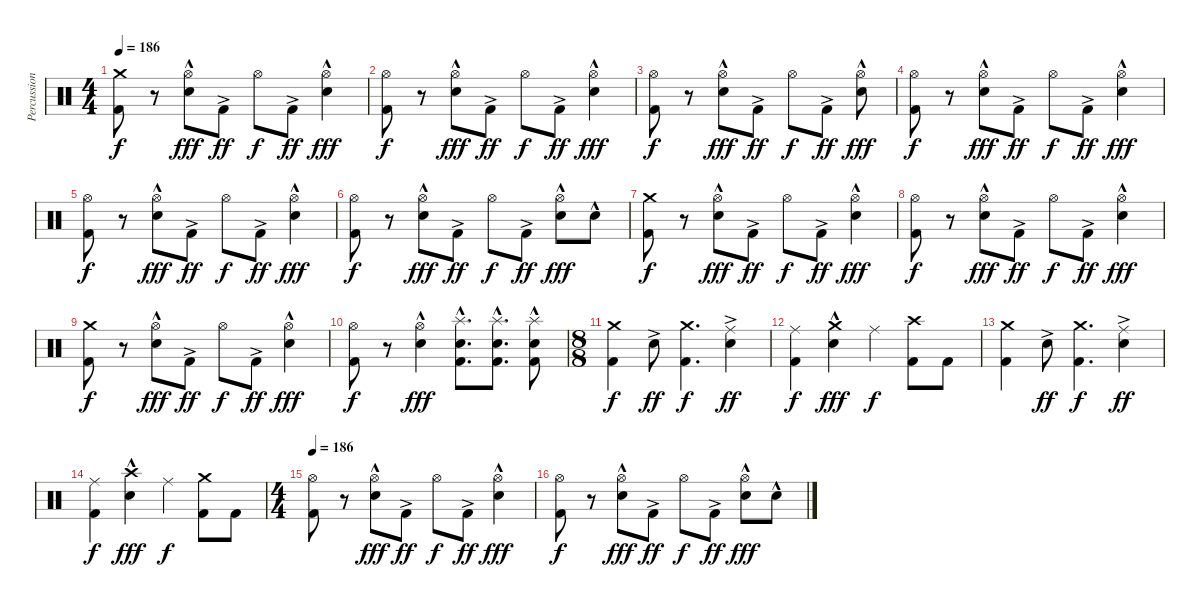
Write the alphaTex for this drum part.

\track ("Percussion" "Percussion") {instrument percussion}
\staff {score}
\articulation defaults
\ts (4 4)
\tempo 186
\clef neutral
\ks c
("Kick (hit) 2" "Crash medium (hit)").8{dy f} r.8 ("Electric Snare (hit)"{hac} "Hi-Hat (open)").8{dy fff} "Kick (hit) 2"{ac}.8{dy ff} "Hi-Hat (open)".8{dy f} "Kick (hit) 2"{ac}.8{dy ff} ("Electric Snare (hit)"{hac} "Hi-Hat (open)").4{dy fff} |
("Kick (hit) 2" "Hi-Hat (open)").8{dy f} r.8 ("Electric Snare (hit)"{hac} "Hi-Hat (open)").8{dy fff} "Kick (hit) 2"{ac}.8{dy ff} "Hi-Hat (open)".8{dy f} "Kick (hit) 2"{ac}.8{dy ff} ("Electric Snare (hit)"{hac} "Hi-Hat (open)").4{dy fff} |
("Kick (hit) 2" "Hi-Hat (open)").8{dy f} r.8 ("Electric Snare (hit)"{hac} "Hi-Hat (open)").8{dy fff} "Kick (hit) 2"{ac}.8{dy ff} "Hi-Hat (open)".8{dy f} "Kick (hit) 2"{ac}.8{dy ff} ("Electric Snare (hit)"{hac} "Hi-Hat (open)").8{dy fff} |
("Kick (hit) 2" "Hi-Hat (open)").8{dy f} r.8 ("Electric Snare (hit)"{hac} "Hi-Hat (open)").8{dy fff} "Kick (hit) 2"{ac}.8{dy ff} "Hi-Hat (open)".8{dy f} "Kick (hit) 2"{ac}.8{dy ff} ("Electric Snare (hit)"{hac} "Hi-Hat (open)").4{dy fff} |
("Kick (hit) 2" "Hi-Hat (open)").8{dy f} r.8 ("Electric Snare (hit)"{hac} "Hi-Hat (open)").8{dy fff} "Kick (hit) 2"{ac}.8{dy ff} "Hi-Hat (open)".8{dy f} "Kick (hit) 2"{ac}.8{dy ff} ("Electric Snare (hit)"{hac} "Hi-Hat (open)").4{dy fff} |
("Kick (hit) 2" "Hi-Hat (open)").8{dy f} r.8 ("Electric Snare (hit)"{hac} "Hi-Hat (open)").8{dy fff} "Kick (hit) 2"{ac}.8{dy ff} "Hi-Hat (open)".8{dy f} "Kick (hit) 2"{ac}.8{dy ff} ("Electric Snare (hit)"{hac} "Hi-Hat (open)").8{dy fff} "Electric Snare (hit)"{hac}.8 |
("Kick (hit) 2" "Crash medium (hit)").8{dy f} r.8 ("Electric Snare (hit)"{hac} "Hi-Hat (open)").8{dy fff} "Kick (hit) 2"{ac}.8{dy ff} "Hi-Hat (open)".8{dy f} "Kick (hit) 2"{ac}.8{dy ff} ("Electric Snare (hit)"{hac} "Hi-Hat (open)").4{dy fff} |
("Kick (hit) 2" "Hi-Hat (open)").8{dy f} r.8 ("Electric Snare (hit)"{hac} "Hi-Hat (open)").8{dy fff} "Kick (hit) 2"{ac}.8{dy ff} "Hi-Hat (open)".8{dy f} "Kick (hit) 2"{ac}.8{dy ff} ("Electric Snare (hit)"{hac} "Hi-Hat (open)").4{dy fff} |
("Kick (hit) 2" "Crash medium (hit)").8{dy f} r.8 ("Electric Snare (hit)"{hac} "Hi-Hat (open)").8{dy fff} "Kick (hit) 2"{ac}.8{dy ff} "Hi-Hat (open)".8{dy f} "Kick (hit) 2"{ac}.8{dy ff} ("Electric Snare (hit)"{hac} "Hi-Hat (open)").4{dy fff} |
("Kick (hit) 2" "Hi-Hat (open)").8{dy f} r.8 ("Electric Snare (hit)"{hac} "Hi-Hat (open)").4{dy fff} ("Kick (hit) 2" "Electric Snare (hit)"{hac} "Splash (hit)").8{d} ("Kick (hit) 2" "Electric Snare (hit)"{hac} "Splash (hit)").8{d} ("Kick (hit) 2" "Electric Snare (hit)"{hac} "Splash (hit)").8 |
\ts (8 8)
("Kick (hit) 2" "Crash medium (hit)").4{dy f} "Electric Snare (hit)"{ac}.8{dy ff} ("Kick (hit) 2" "Crash medium (hit)").4{d dy f} ("Electric Snare (hit)"{ac} "Ride (middle)").4{dy ff} |
("Kick (hit) 2" "Ride (middle)").4{dy f} ("Electric Snare (hit)"{hac} "Crash medium (hit)").4{dy fff} "Ride (middle)".4{dy f} ("Kick (hit) 2" "Crash high (hit)").8 "Kick (hit) 2".8 |
("Kick (hit) 2" "Crash medium (hit)").4 "Electric Snare (hit)"{ac}.8{dy ff} ("Kick (hit) 2" "Crash medium (hit)").4{d dy f} ("Electric Snare (hit)"{ac} "Ride (middle)").4{dy ff} |
("Kick (hit) 2" "Ride (middle)").4{dy f} ("Electric Snare (hit)"{hac} "Crash high (hit)").4{dy fff} "Ride (middle)".4{dy f} ("Kick (hit) 2" "Crash medium (hit)").8 "Kick (hit) 2".8 |
\ts (4 4)
\tempo 186
("Kick (hit) 2" "Hi-Hat (open)").8 r.8 ("Electric Snare (hit)"{hac} "Hi-Hat (open)").8{dy fff} "Kick (hit) 2"{ac}.8{dy ff} "Hi-Hat (open)".8{dy f} "Kick (hit) 2"{ac}.8{dy ff} ("Electric Snare (hit)"{hac} "Hi-Hat (open)").4{dy fff} |
("Kick (hit) 2" "Hi-Hat (open)").8{dy f} r.8 ("Electric Snare (hit)"{hac} "Hi-Hat (open)").8{dy fff} "Kick (hit) 2"{ac}.8{dy ff} "Hi-Hat (open)".8{dy f} "Kick (hit) 2"{ac}.8{dy ff} ("Electric Snare (hit)"{hac} "Hi-Hat (open)").8{dy fff} "Electric Snare (hit)"{hac}.8
